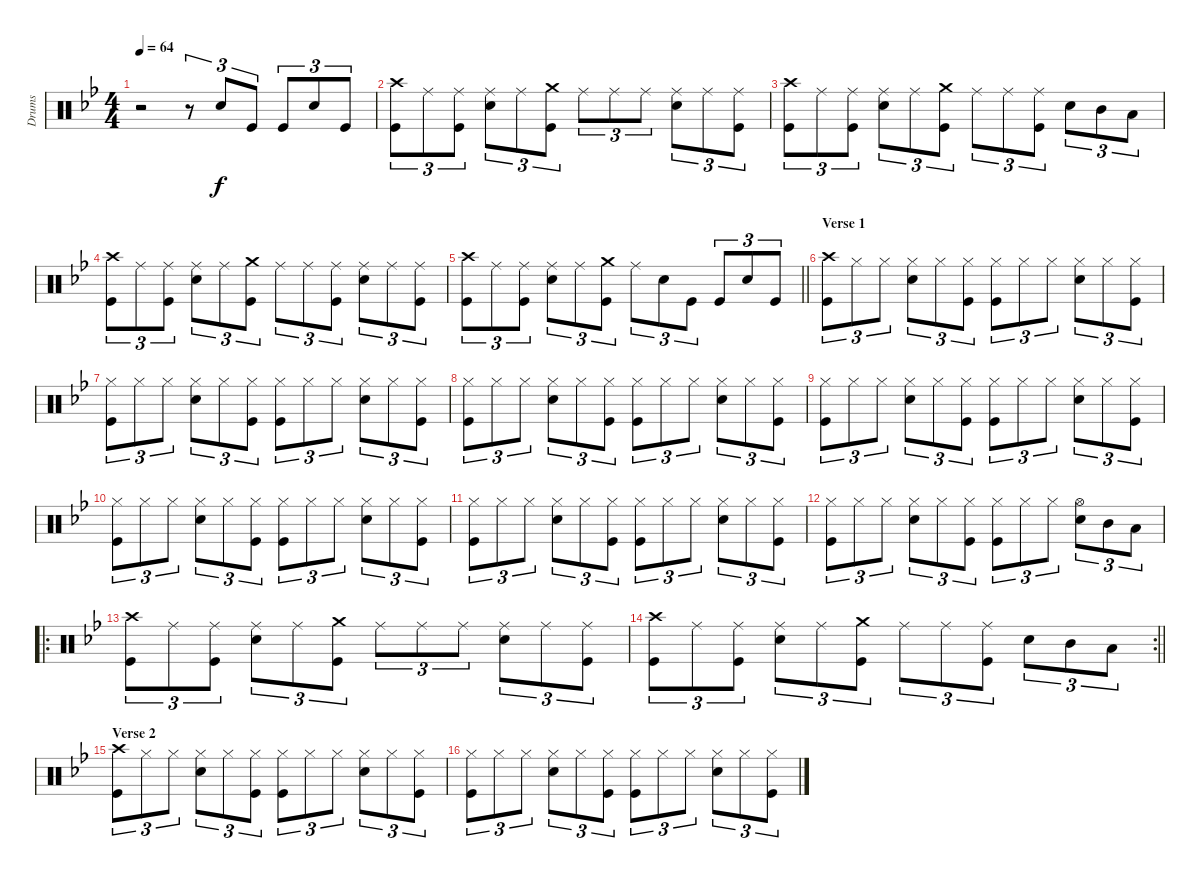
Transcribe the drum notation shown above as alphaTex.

\track ("Drums" "Drums") {instrument percussion}
\staff {score}
\articulation defaults
\ts (4 4)
\tempo 64
\clef neutral
\ks bb
r.2{dy f} r.8{tu (3 2)} "Snare (hit) 2".8{tu (3 2)} "Kick (hit)".8{tu (3 2)} "Kick (hit)".8{tu (3 2)} "Snare (hit) 2".8{tu (3 2)} "Kick (hit)".8{tu (3 2)} |
("Crash high (hit)" "Kick (hit)").8{tu (3 2)} "Ride (middle)".8{tu (3 2)} ("Ride (middle)" "Kick (hit)").8{tu (3 2)} ("Ride (middle)" "Snare (hit) 2").8{tu (3 2)} "Ride (middle)".8{tu (3 2)} ("Crash medium (hit)" "Kick (hit)").8{tu (3 2)} "Ride (middle)".8{tu (3 2)} "Ride (middle)".8{tu (3 2)} "Ride (middle)".8{tu (3 2)} ("Ride (middle)" "Snare (hit) 2").8{tu (3 2)} "Ride (middle)".8{tu (3 2)} ("Ride (middle)" "Kick (hit)").8{tu (3 2)} |
("Crash high (hit)" "Kick (hit)").8{tu (3 2)} "Ride (middle)".8{tu (3 2)} ("Ride (middle)" "Kick (hit)").8{tu (3 2)} ("Ride (middle)" "Snare (hit) 2").8{tu (3 2)} "Ride (middle)".8{tu (3 2)} ("Crash medium (hit)" "Kick (hit)").8{tu (3 2)} "Ride (middle)".8{tu (3 2)} "Ride (middle)".8{tu (3 2)} ("Ride (middle)" "Kick (hit)").8{tu (3 2)} "Snare (hit) 2".8{tu (3 2)} "Mid Tom (hit)".8{tu (3 2)} "Low Tom (hit)".8{tu (3 2)} |
("Crash high (hit)" "Kick (hit)").8{tu (3 2)} "Ride (middle)".8{tu (3 2)} ("Ride (middle)" "Kick (hit)").8{tu (3 2)} ("Ride (middle)" "Snare (hit) 2").8{tu (3 2)} "Ride (middle)".8{tu (3 2)} ("Crash medium (hit)" "Kick (hit)").8{tu (3 2)} "Ride (middle)".8{tu (3 2)} "Ride (middle)".8{tu (3 2)} ("Ride (middle)" "Kick (hit)").8{tu (3 2)} ("Ride (middle)" "Snare (hit) 2").8{tu (3 2)} "Ride (middle)".8{tu (3 2)} ("Ride (middle)" "Kick (hit)").8{tu (3 2)} |
\barLineRight lightlight
("Crash high (hit)" "Kick (hit)").8{tu (3 2)} "Ride (middle)".8{tu (3 2)} ("Ride (middle)" "Kick (hit)").8{tu (3 2)} ("Ride (middle)" "Snare (hit) 2").8{tu (3 2)} "Ride (middle)".8{tu (3 2)} ("Crash medium (hit)" "Kick (hit)").8{tu (3 2)} "Ride (middle)".8{tu (3 2)} "Snare (hit) 2".8{tu (3 2)} "Kick (hit)".8{tu (3 2)} "Kick (hit)".8{tu (3 2)} "Snare (hit) 2".8{tu (3 2)} "Kick (hit)".8{tu (3 2)} |
\section ("" "Verse 1")
("Crash high (hit)" "Kick (hit)").8{tu (3 2)} "Hi-Hat (closed)".8{tu (3 2)} "Hi-Hat (closed)".8{tu (3 2)} ("Hi-Hat (closed)" "Snare (hit) 2").8{tu (3 2)} "Hi-Hat (closed)".8{tu (3 2)} ("Hi-Hat (closed)" "Kick (hit)").8{tu (3 2)} ("Hi-Hat (closed)" "Kick (hit)").8{tu (3 2)} "Hi-Hat (closed)".8{tu (3 2)} "Hi-Hat (closed)".8{tu (3 2)} ("Hi-Hat (closed)" "Snare (hit) 2").8{tu (3 2)} "Hi-Hat (closed)".8{tu (3 2)} ("Hi-Hat (closed)" "Kick (hit)").8{tu (3 2)} |
("Hi-Hat (closed)" "Kick (hit)").8{tu (3 2)} "Hi-Hat (closed)".8{tu (3 2)} "Hi-Hat (closed)".8{tu (3 2)} ("Hi-Hat (closed)" "Snare (hit) 2").8{tu (3 2)} "Hi-Hat (closed)".8{tu (3 2)} ("Hi-Hat (closed)" "Kick (hit)").8{tu (3 2)} ("Hi-Hat (closed)" "Kick (hit)").8{tu (3 2)} "Hi-Hat (closed)".8{tu (3 2)} "Hi-Hat (closed)".8{tu (3 2)} ("Hi-Hat (closed)" "Snare (hit) 2").8{tu (3 2)} "Hi-Hat (closed)".8{tu (3 2)} ("Hi-Hat (closed)" "Kick (hit)").8{tu (3 2)} |
("Hi-Hat (closed)" "Kick (hit)").8{tu (3 2)} "Hi-Hat (closed)".8{tu (3 2)} "Hi-Hat (closed)".8{tu (3 2)} ("Hi-Hat (closed)" "Snare (hit) 2").8{tu (3 2)} "Hi-Hat (closed)".8{tu (3 2)} ("Hi-Hat (closed)" "Kick (hit)").8{tu (3 2)} ("Hi-Hat (closed)" "Kick (hit)").8{tu (3 2)} "Hi-Hat (closed)".8{tu (3 2)} "Hi-Hat (closed)".8{tu (3 2)} ("Hi-Hat (closed)" "Snare (hit) 2").8{tu (3 2)} "Hi-Hat (closed)".8{tu (3 2)} ("Hi-Hat (closed)" "Kick (hit)").8{tu (3 2)} |
("Hi-Hat (closed)" "Kick (hit)").8{tu (3 2)} "Hi-Hat (closed)".8{tu (3 2)} "Hi-Hat (closed)".8{tu (3 2)} ("Hi-Hat (closed)" "Snare (hit) 2").8{tu (3 2)} "Hi-Hat (closed)".8{tu (3 2)} ("Hi-Hat (closed)" "Kick (hit)").8{tu (3 2)} ("Hi-Hat (closed)" "Kick (hit)").8{tu (3 2)} "Hi-Hat (closed)".8{tu (3 2)} "Hi-Hat (closed)".8{tu (3 2)} ("Hi-Hat (closed)" "Snare (hit) 2").8{tu (3 2)} "Hi-Hat (closed)".8{tu (3 2)} ("Hi-Hat (closed)" "Kick (hit)").8{tu (3 2)} |
("Hi-Hat (closed)" "Kick (hit)").8{tu (3 2)} "Hi-Hat (closed)".8{tu (3 2)} "Hi-Hat (closed)".8{tu (3 2)} ("Hi-Hat (closed)" "Snare (hit) 2").8{tu (3 2)} "Hi-Hat (closed)".8{tu (3 2)} ("Hi-Hat (closed)" "Kick (hit)").8{tu (3 2)} ("Hi-Hat (closed)" "Kick (hit)").8{tu (3 2)} "Hi-Hat (closed)".8{tu (3 2)} "Hi-Hat (closed)".8{tu (3 2)} ("Hi-Hat (closed)" "Snare (hit) 2").8{tu (3 2)} "Hi-Hat (closed)".8{tu (3 2)} ("Hi-Hat (closed)" "Kick (hit)").8{tu (3 2)} |
("Hi-Hat (closed)" "Kick (hit)").8{tu (3 2)} "Hi-Hat (closed)".8{tu (3 2)} "Hi-Hat (closed)".8{tu (3 2)} ("Hi-Hat (closed)" "Snare (hit) 2").8{tu (3 2)} "Hi-Hat (closed)".8{tu (3 2)} ("Hi-Hat (closed)" "Kick (hit)").8{tu (3 2)} ("Hi-Hat (closed)" "Kick (hit)").8{tu (3 2)} "Hi-Hat (closed)".8{tu (3 2)} "Hi-Hat (closed)".8{tu (3 2)} ("Hi-Hat (closed)" "Snare (hit) 2").8{tu (3 2)} "Hi-Hat (closed)".8{tu (3 2)} ("Hi-Hat (closed)" "Kick (hit)").8{tu (3 2)} |
("Hi-Hat (closed)" "Kick (hit)").8{tu (3 2)} "Hi-Hat (closed)".8{tu (3 2)} "Hi-Hat (closed)".8{tu (3 2)} ("Hi-Hat (closed)" "Snare (hit) 2").8{tu (3 2)} "Hi-Hat (closed)".8{tu (3 2)} ("Hi-Hat (closed)" "Kick (hit)").8{tu (3 2)} ("Hi-Hat (closed)" "Kick (hit)").8{tu (3 2)} "Hi-Hat (closed)".8{tu (3 2)} "Hi-Hat (closed)".8{tu (3 2)} ("Hi-Hat (open)" "Snare (hit) 2").8{tu (3 2)} "Mid Tom (hit)".8{tu (3 2)} "Low Tom (hit)".8{tu (3 2)} |
\ro
("Crash high (hit)" "Kick (hit)").8{tu (3 2)} "Ride (middle)".8{tu (3 2)} ("Ride (middle)" "Kick (hit)").8{tu (3 2)} ("Ride (middle)" "Snare (hit) 2").8{tu (3 2)} "Ride (middle)".8{tu (3 2)} ("Crash medium (hit)" "Kick (hit)").8{tu (3 2)} "Ride (middle)".8{tu (3 2)} "Ride (middle)".8{tu (3 2)} "Ride (middle)".8{tu (3 2)} ("Ride (middle)" "Snare (hit) 2").8{tu (3 2)} "Ride (middle)".8{tu (3 2)} ("Ride (middle)" "Kick (hit)").8{tu (3 2)} |
\rc 2
\barLineRight lightlight
("Crash high (hit)" "Kick (hit)").8{tu (3 2)} "Ride (middle)".8{tu (3 2)} ("Ride (middle)" "Kick (hit)").8{tu (3 2)} ("Ride (middle)" "Snare (hit) 2").8{tu (3 2)} "Ride (middle)".8{tu (3 2)} ("Crash medium (hit)" "Kick (hit)").8{tu (3 2)} "Ride (middle)".8{tu (3 2)} "Ride (middle)".8{tu (3 2)} ("Ride (middle)" "Kick (hit)").8{tu (3 2)} "Snare (hit) 2".8{tu (3 2)} "Mid Tom (hit)".8{tu (3 2)} "Low Tom (hit)".8{tu (3 2)} |
\section ("" "Verse 2")
("Crash high (hit)" "Kick (hit)").8{tu (3 2)} "Hi-Hat (closed)".8{tu (3 2)} "Hi-Hat (closed)".8{tu (3 2)} ("Hi-Hat (closed)" "Snare (hit) 2").8{tu (3 2)} "Hi-Hat (closed)".8{tu (3 2)} ("Hi-Hat (closed)" "Kick (hit)").8{tu (3 2)} ("Hi-Hat (closed)" "Kick (hit)").8{tu (3 2)} "Hi-Hat (closed)".8{tu (3 2)} "Hi-Hat (closed)".8{tu (3 2)} ("Hi-Hat (closed)" "Snare (hit) 2").8{tu (3 2)} "Hi-Hat (closed)".8{tu (3 2)} ("Hi-Hat (closed)" "Kick (hit)").8{tu (3 2)} |
("Hi-Hat (closed)" "Kick (hit)").8{tu (3 2)} "Hi-Hat (closed)".8{tu (3 2)} "Hi-Hat (closed)".8{tu (3 2)} ("Hi-Hat (closed)" "Snare (hit) 2").8{tu (3 2)} "Hi-Hat (closed)".8{tu (3 2)} ("Hi-Hat (closed)" "Kick (hit)").8{tu (3 2)} ("Hi-Hat (closed)" "Kick (hit)").8{tu (3 2)} "Hi-Hat (closed)".8{tu (3 2)} "Hi-Hat (closed)".8{tu (3 2)} ("Hi-Hat (closed)" "Snare (hit) 2").8{tu (3 2)} "Hi-Hat (closed)".8{tu (3 2)} ("Hi-Hat (closed)" "Kick (hit)").8{tu (3 2)}
